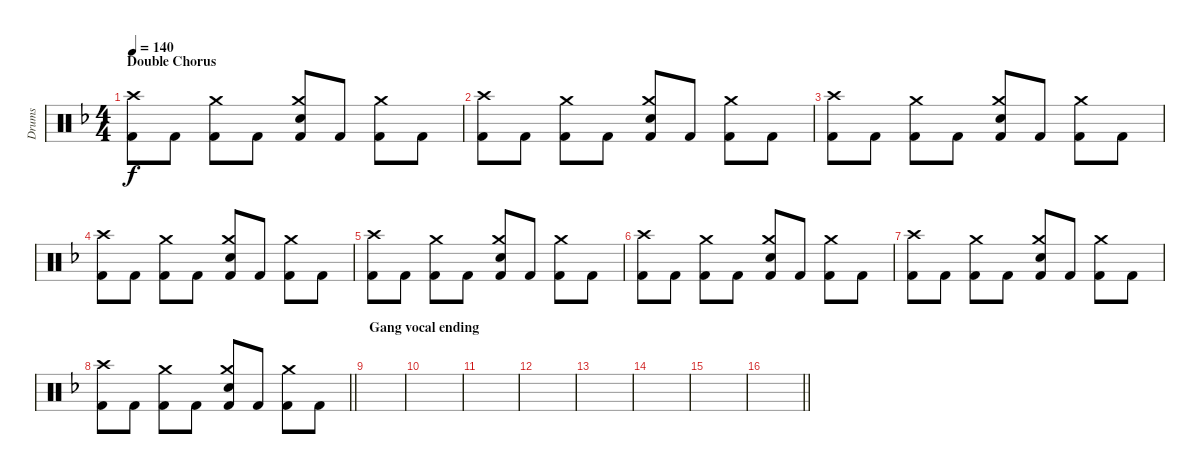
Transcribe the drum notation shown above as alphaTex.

\track ("Drums" "Drums") {instrument percussion}
\staff {score}
\articulation defaults
\ts (4 4)
\section ("" "Double Chorus")
\tempo 140
\clef neutral
\ks dminor
("Crash high (hit)" "Kick (hit) 2").8{dy f} "Kick (hit) 2".8 ("Crash medium (hit)" "Kick (hit) 2").8 "Kick (hit) 2".8 ("Crash medium (hit)" "Snare (hit) 2" "Kick (hit) 2").8 "Kick (hit) 2".8 ("Crash medium (hit)" "Kick (hit) 2").8 "Kick (hit) 2".8 |
("Crash high (hit)" "Kick (hit) 2").8 "Kick (hit) 2".8 ("Crash medium (hit)" "Kick (hit) 2").8 "Kick (hit) 2".8 ("Crash medium (hit)" "Snare (hit) 2" "Kick (hit) 2").8 "Kick (hit) 2".8 ("Crash medium (hit)" "Kick (hit) 2").8 "Kick (hit) 2".8 |
("Crash high (hit)" "Kick (hit) 2").8 "Kick (hit) 2".8 ("Crash medium (hit)" "Kick (hit) 2").8 "Kick (hit) 2".8 ("Crash medium (hit)" "Snare (hit) 2" "Kick (hit) 2").8 "Kick (hit) 2".8 ("Crash medium (hit)" "Kick (hit) 2").8 "Kick (hit) 2".8 |
("Crash high (hit)" "Kick (hit) 2").8 "Kick (hit) 2".8 ("Crash medium (hit)" "Kick (hit) 2").8 "Kick (hit) 2".8 ("Crash medium (hit)" "Snare (hit) 2" "Kick (hit) 2").8 "Kick (hit) 2".8 ("Crash medium (hit)" "Kick (hit) 2").8 "Kick (hit) 2".8 |
("Crash high (hit)" "Kick (hit) 2").8 "Kick (hit) 2".8 ("Crash medium (hit)" "Kick (hit) 2").8 "Kick (hit) 2".8 ("Crash medium (hit)" "Snare (hit) 2" "Kick (hit) 2").8 "Kick (hit) 2".8 ("Crash medium (hit)" "Kick (hit) 2").8 "Kick (hit) 2".8 |
("Crash high (hit)" "Kick (hit) 2").8 "Kick (hit) 2".8 ("Crash medium (hit)" "Kick (hit) 2").8 "Kick (hit) 2".8 ("Crash medium (hit)" "Snare (hit) 2" "Kick (hit) 2").8 "Kick (hit) 2".8 ("Crash medium (hit)" "Kick (hit) 2").8 "Kick (hit) 2".8 |
("Crash high (hit)" "Kick (hit) 2").8 "Kick (hit) 2".8 ("Crash medium (hit)" "Kick (hit) 2").8 "Kick (hit) 2".8 ("Crash medium (hit)" "Snare (hit) 2" "Kick (hit) 2").8 "Kick (hit) 2".8 ("Crash medium (hit)" "Kick (hit) 2").8 "Kick (hit) 2".8 |
\barLineRight lightlight
("Crash high (hit)" "Kick (hit) 2").8 "Kick (hit) 2".8 ("Crash medium (hit)" "Kick (hit) 2").8 "Kick (hit) 2".8 ("Crash medium (hit)" "Snare (hit) 2" "Kick (hit) 2").8 "Kick (hit) 2".8 ("Crash medium (hit)" "Kick (hit) 2").8 "Kick (hit) 2".8 |
\section ("" "Gang vocal ending")
|
|
|
|
|
|
|
\barLineRight lightlight
